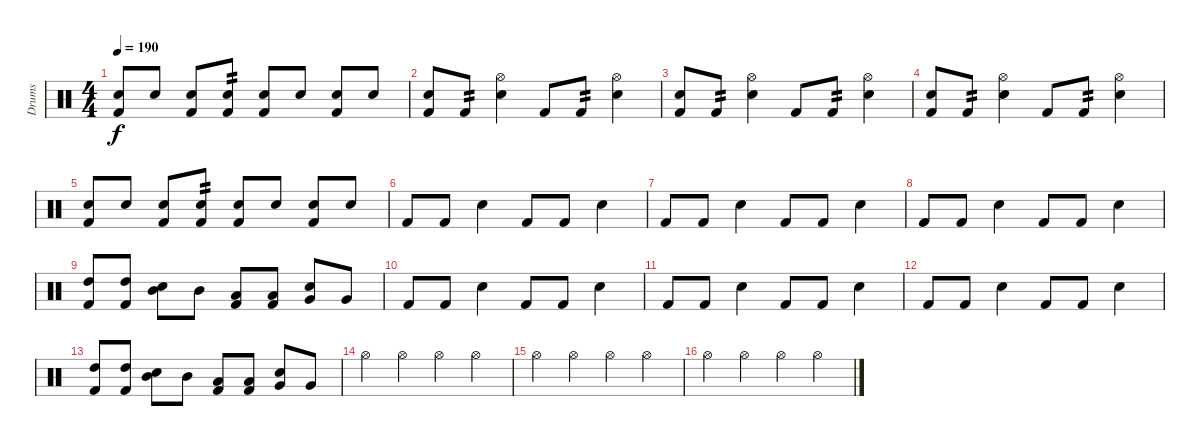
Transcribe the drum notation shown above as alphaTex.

\track ("Drums" "Drums") {instrument percussion}
\staff {score}
\articulation defaults
\ts (4 4)
\tempo 190
\clef neutral
\ks c
("Snare (hit) 2" "Kick (hit) 2").8{dy f} "Snare (hit) 2".8 ("Snare (hit) 2" "Kick (hit) 2").8 ("Snare (hit) 2" "Kick (hit) 2").8{tp 2} ("Snare (hit) 2" "Kick (hit) 2").8 "Snare (hit) 2".8 ("Snare (hit) 2" "Kick (hit) 2").8 "Snare (hit) 2".8 |
("Snare (hit) 2" "Kick (hit) 2").8 "Kick (hit) 2".8{tp 2} ("Hi-Hat (open)" "Snare (hit) 2").4 "Kick (hit) 2".8 "Kick (hit) 2".8{tp 2} ("Hi-Hat (open)" "Snare (hit) 2").4 |
("Snare (hit) 2" "Kick (hit) 2").8 "Kick (hit) 2".8{tp 2} ("Hi-Hat (open)" "Snare (hit) 2").4 "Kick (hit) 2".8 "Kick (hit) 2".8{tp 2} ("Hi-Hat (open)" "Snare (hit) 2").4 |
("Snare (hit) 2" "Kick (hit) 2").8 "Kick (hit) 2".8{tp 2} ("Hi-Hat (open)" "Snare (hit) 2").4 "Kick (hit) 2".8 "Kick (hit) 2".8{tp 2} ("Hi-Hat (open)" "Snare (hit) 2").4 |
("Snare (hit) 2" "Kick (hit) 2").8 "Snare (hit) 2".8 ("Snare (hit) 2" "Kick (hit) 2").8 ("Snare (hit) 2" "Kick (hit) 2").8{tp 2} ("Snare (hit) 2" "Kick (hit) 2").8 "Snare (hit) 2".8 ("Snare (hit) 2" "Kick (hit) 2").8 "Snare (hit) 2".8 |
"Kick (hit) 2".8 "Kick (hit) 2".8 "Snare (hit) 2".4 "Kick (hit) 2".8 "Kick (hit) 2".8 "Snare (hit) 2".4 |
"Kick (hit) 2".8 "Kick (hit) 2".8 "Snare (hit) 2".4 "Kick (hit) 2".8 "Kick (hit) 2".8 "Snare (hit) 2".4 |
"Kick (hit) 2".8 "Kick (hit) 2".8 "Snare (hit) 2".4 "Kick (hit) 2".8 "Kick (hit) 2".8 "Snare (hit) 2".4 |
("High Tom (hit)" "Kick (hit) 2").8 ("High Tom (hit)" "Kick (hit) 2").8 ("Mid Tom (hit)" "Snare (hit) 2").8 "Mid Tom (hit)".8 ("Low Tom (hit)" "Kick (hit) 2").8 ("Low Tom (hit)" "Kick (hit) 2").8 ("Very Low Tom (hit)" "Snare (hit) 2").8 "Very Low Tom (hit)".8 |
"Kick (hit) 2".8 "Kick (hit) 2".8 "Snare (hit) 2".4 "Kick (hit) 2".8 "Kick (hit) 2".8 "Snare (hit) 2".4 |
"Kick (hit) 2".8 "Kick (hit) 2".8 "Snare (hit) 2".4 "Kick (hit) 2".8 "Kick (hit) 2".8 "Snare (hit) 2".4 |
"Kick (hit) 2".8 "Kick (hit) 2".8 "Snare (hit) 2".4 "Kick (hit) 2".8 "Kick (hit) 2".8 "Snare (hit) 2".4 |
("High Tom (hit)" "Kick (hit) 2").8 ("High Tom (hit)" "Kick (hit) 2").8 ("Mid Tom (hit)" "Snare (hit) 2").8 "Mid Tom (hit)".8 ("Low Tom (hit)" "Kick (hit) 2").8 ("Low Tom (hit)" "Kick (hit) 2").8 ("Very Low Tom (hit)" "Snare (hit) 2").8 "Very Low Tom (hit)".8 |
"Hi-Hat (open)".4 "Hi-Hat (open)".4 "Hi-Hat (open)".4 "Hi-Hat (open)".4 |
"Hi-Hat (open)".4 "Hi-Hat (open)".4 "Hi-Hat (open)".4 "Hi-Hat (open)".4 |
"Hi-Hat (open)".4 "Hi-Hat (open)".4 "Hi-Hat (open)".4 "Hi-Hat (open)".4
